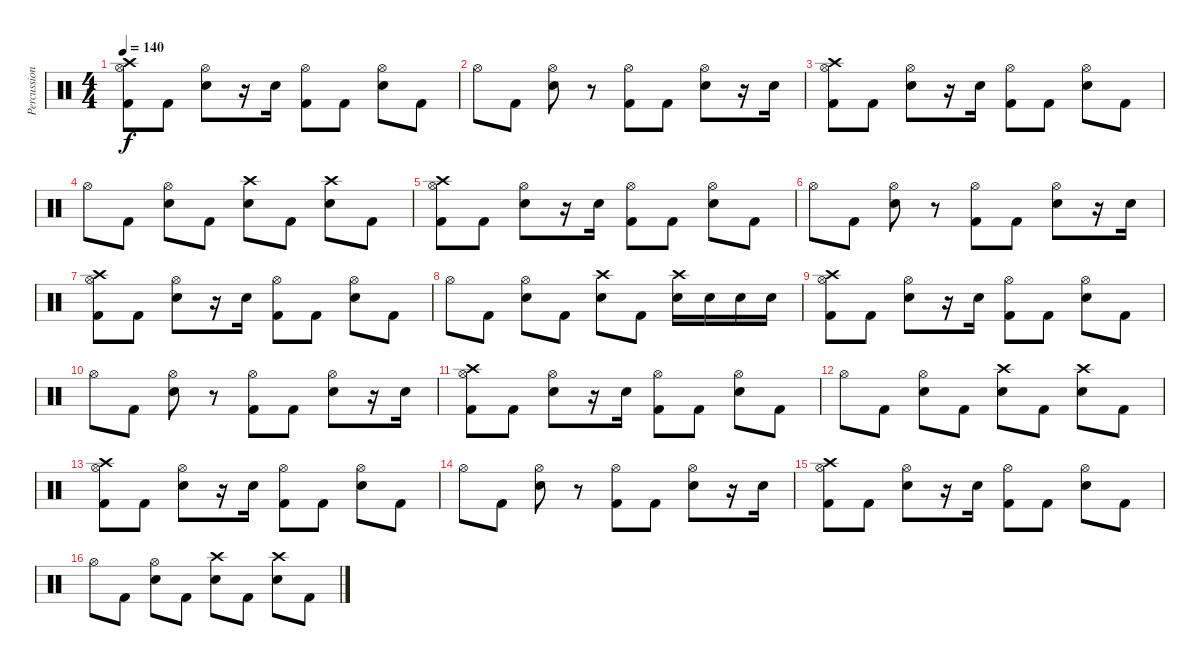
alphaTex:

\track ("Percussion" "Percussion") {instrument percussion}
\staff {score}
\articulation defaults
\ts (4 4)
\tempo 140
\clef neutral
\ks c
("Kick (hit) 2" "Hi-Hat (open)" "Crash high (hit)").8{dy f} "Kick (hit) 2".8 ("Snare (hit) 2" "Hi-Hat (open)").8 r.16 "Snare (hit) 2".16 ("Kick (hit) 2" "Hi-Hat (open)").8 "Kick (hit) 2".8 ("Snare (hit) 2" "Hi-Hat (open)").8 "Kick (hit) 2".8 |
"Hi-Hat (open)".8 "Kick (hit) 2".8 ("Snare (hit) 2" "Hi-Hat (open)").8 r.8 ("Kick (hit) 2" "Hi-Hat (open)").8 "Kick (hit) 2".8 ("Snare (hit) 2" "Hi-Hat (open)").8 r.16 "Snare (hit) 2".16 |
("Kick (hit) 2" "Hi-Hat (open)" "Crash high (hit)").8 "Kick (hit) 2".8 ("Snare (hit) 2" "Hi-Hat (open)").8 r.16 "Snare (hit) 2".16 ("Kick (hit) 2" "Hi-Hat (open)").8 "Kick (hit) 2".8 ("Snare (hit) 2" "Hi-Hat (open)").8 "Kick (hit) 2".8 |
"Hi-Hat (open)".8 "Kick (hit) 2".8 ("Snare (hit) 2" "Hi-Hat (open)").8 "Kick (hit) 2".8 ("Snare (hit) 2" "Crash high (hit)").8 "Kick (hit) 2".8 ("Snare (hit) 2" "Crash high (hit)").8 "Kick (hit) 2".8 |
("Kick (hit) 2" "Hi-Hat (open)" "Crash high (hit)").8 "Kick (hit) 2".8 ("Snare (hit) 2" "Hi-Hat (open)").8 r.16 "Snare (hit) 2".16 ("Kick (hit) 2" "Hi-Hat (open)").8 "Kick (hit) 2".8 ("Snare (hit) 2" "Hi-Hat (open)").8 "Kick (hit) 2".8 |
"Hi-Hat (open)".8 "Kick (hit) 2".8 ("Snare (hit) 2" "Hi-Hat (open)").8 r.8 ("Kick (hit) 2" "Hi-Hat (open)").8 "Kick (hit) 2".8 ("Snare (hit) 2" "Hi-Hat (open)").8 r.16 "Snare (hit) 2".16 |
("Kick (hit) 2" "Hi-Hat (open)" "Crash high (hit)").8 "Kick (hit) 2".8 ("Snare (hit) 2" "Hi-Hat (open)").8 r.16 "Snare (hit) 2".16 ("Kick (hit) 2" "Hi-Hat (open)").8 "Kick (hit) 2".8 ("Snare (hit) 2" "Hi-Hat (open)").8 "Kick (hit) 2".8 |
"Hi-Hat (open)".8 "Kick (hit) 2".8 ("Snare (hit) 2" "Hi-Hat (open)").8 "Kick (hit) 2".8 ("Snare (hit) 2" "Crash high (hit)").8 "Kick (hit) 2".8 ("Snare (hit) 2" "Crash high (hit)").16 "Snare (hit) 2".16 "Snare (hit) 2".16 "Snare (hit) 2".16 |
("Kick (hit) 2" "Hi-Hat (open)" "Crash high (hit)").8 "Kick (hit) 2".8 ("Snare (hit) 2" "Hi-Hat (open)").8 r.16 "Snare (hit) 2".16 ("Kick (hit) 2" "Hi-Hat (open)").8 "Kick (hit) 2".8 ("Snare (hit) 2" "Hi-Hat (open)").8 "Kick (hit) 2".8 |
"Hi-Hat (open)".8 "Kick (hit) 2".8 ("Snare (hit) 2" "Hi-Hat (open)").8 r.8 ("Kick (hit) 2" "Hi-Hat (open)").8 "Kick (hit) 2".8 ("Snare (hit) 2" "Hi-Hat (open)").8 r.16 "Snare (hit) 2".16 |
("Kick (hit) 2" "Hi-Hat (open)" "Crash high (hit)").8 "Kick (hit) 2".8 ("Snare (hit) 2" "Hi-Hat (open)").8 r.16 "Snare (hit) 2".16 ("Kick (hit) 2" "Hi-Hat (open)").8 "Kick (hit) 2".8 ("Snare (hit) 2" "Hi-Hat (open)").8 "Kick (hit) 2".8 |
"Hi-Hat (open)".8 "Kick (hit) 2".8 ("Snare (hit) 2" "Hi-Hat (open)").8 "Kick (hit) 2".8 ("Snare (hit) 2" "Crash high (hit)").8 "Kick (hit) 2".8 ("Snare (hit) 2" "Crash high (hit)").8 "Kick (hit) 2".8 |
("Kick (hit) 2" "Hi-Hat (open)" "Crash high (hit)").8 "Kick (hit) 2".8 ("Snare (hit) 2" "Hi-Hat (open)").8 r.16 "Snare (hit) 2".16 ("Kick (hit) 2" "Hi-Hat (open)").8 "Kick (hit) 2".8 ("Snare (hit) 2" "Hi-Hat (open)").8 "Kick (hit) 2".8 |
"Hi-Hat (open)".8 "Kick (hit) 2".8 ("Snare (hit) 2" "Hi-Hat (open)").8 r.8 ("Kick (hit) 2" "Hi-Hat (open)").8 "Kick (hit) 2".8 ("Snare (hit) 2" "Hi-Hat (open)").8 r.16 "Snare (hit) 2".16 |
("Kick (hit) 2" "Hi-Hat (open)" "Crash high (hit)").8 "Kick (hit) 2".8 ("Snare (hit) 2" "Hi-Hat (open)").8 r.16 "Snare (hit) 2".16 ("Kick (hit) 2" "Hi-Hat (open)").8 "Kick (hit) 2".8 ("Snare (hit) 2" "Hi-Hat (open)").8 "Kick (hit) 2".8 |
"Hi-Hat (open)".8 "Kick (hit) 2".8 ("Snare (hit) 2" "Hi-Hat (open)").8 "Kick (hit) 2".8 ("Snare (hit) 2" "Crash high (hit)").8 "Kick (hit) 2".8 ("Snare (hit) 2" "Crash high (hit)").8 "Kick (hit) 2".8
